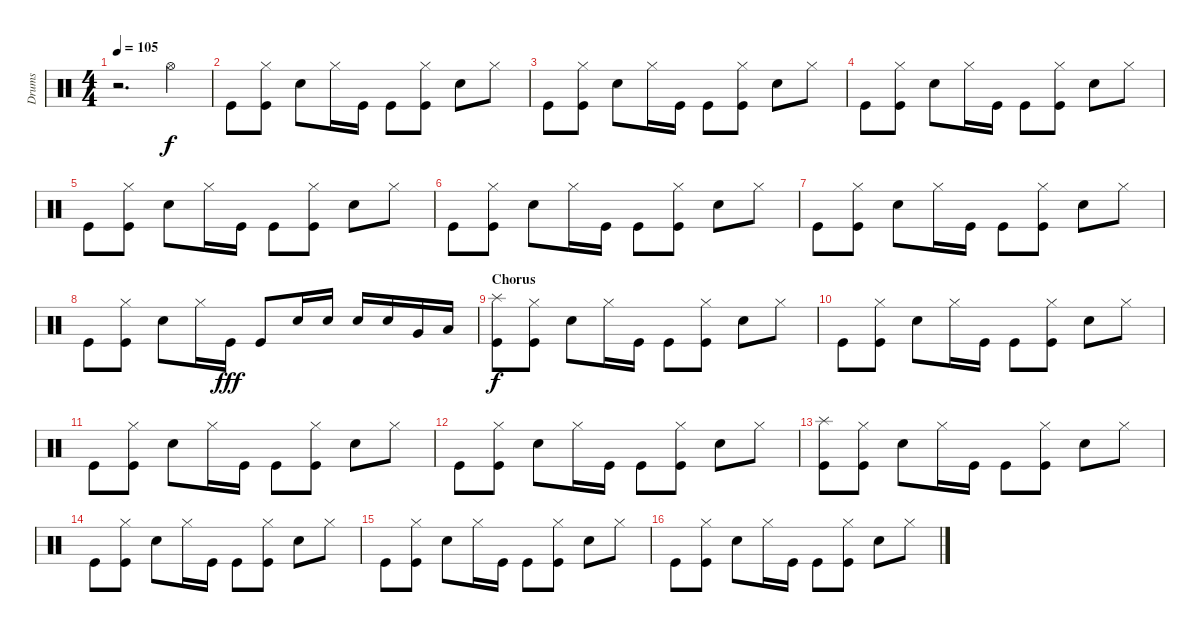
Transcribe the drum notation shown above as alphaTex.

\track ("Drums" "Drums") {instrument percussion}
\staff {score}
\articulation defaults
\ts (4 4)
\tempo 105
\clef neutral
\ks c
r.2{d dy mp} "Hi-Hat (open)".4{dy f} |
"Kick (hit)".8{volume 9} ("Kick (hit)" "Hi-Hat (closed)").8 "Electric Snare (hit)".8 "Hi-Hat (closed)".16 "Kick (hit)".16 "Kick (hit)".8 ("Kick (hit)" "Hi-Hat (closed)").8 "Electric Snare (hit)".8 "Hi-Hat (closed)".8 |
"Kick (hit)".8 ("Kick (hit)" "Hi-Hat (closed)").8 "Electric Snare (hit)".8 "Hi-Hat (closed)".16 "Kick (hit)".16 "Kick (hit)".8 ("Kick (hit)" "Hi-Hat (closed)").8 "Electric Snare (hit)".8 "Hi-Hat (closed)".8 |
"Kick (hit)".8 ("Kick (hit)" "Hi-Hat (closed)").8 "Electric Snare (hit)".8 "Hi-Hat (closed)".16 "Kick (hit)".16 "Kick (hit)".8 ("Kick (hit)" "Hi-Hat (closed)").8 "Electric Snare (hit)".8 "Hi-Hat (closed)".8 |
"Kick (hit)".8 ("Kick (hit)" "Hi-Hat (closed)").8 "Electric Snare (hit)".8 "Hi-Hat (closed)".16 "Kick (hit)".16 "Kick (hit)".8 ("Kick (hit)" "Hi-Hat (closed)").8 "Electric Snare (hit)".8 "Hi-Hat (closed)".8 |
"Kick (hit)".8 ("Kick (hit)" "Hi-Hat (closed)").8 "Electric Snare (hit)".8 "Hi-Hat (closed)".16 "Kick (hit)".16 "Kick (hit)".8 ("Kick (hit)" "Hi-Hat (closed)").8 "Electric Snare (hit)".8 "Hi-Hat (closed)".8 |
"Kick (hit)".8 ("Kick (hit)" "Hi-Hat (closed)").8 "Electric Snare (hit)".8 "Hi-Hat (closed)".16 "Kick (hit)".16 "Kick (hit)".8 ("Kick (hit)" "Hi-Hat (closed)").8 "Electric Snare (hit)".8{volume 9} "Hi-Hat (closed)".8{volume 10} |
"Kick (hit)".8{volume 11} ("Kick (hit)" "Hi-Hat (closed)").8{volume 12} "Electric Snare (hit)".8{volume 13} "Hi-Hat (closed)".16{volume 14} "Kick (hit)".16{dy fff volume 14} "Kick (hit)".8{volume 14} "Electric Snare (hit)".16{volume 15} "Electric Snare (hit)".16{volume 16} "Electric Snare (hit)".16{volume 16} "Electric Snare (hit)".16 "Very Low Tom (hit)".16 "Low Floor Tom (hit)".16 |
\section ("" "Chorus")
("Kick (hit)" "Splash (hit)").8{dy f} ("Kick (hit)" "Hi-Hat (closed)").8 "Electric Snare (hit)".8 "Hi-Hat (closed)".16 "Kick (hit)".16 "Kick (hit)".8 ("Kick (hit)" "Hi-Hat (closed)").8 "Electric Snare (hit)".8 "Hi-Hat (closed)".8 |
"Kick (hit)".8 ("Kick (hit)" "Hi-Hat (closed)").8 "Electric Snare (hit)".8 "Hi-Hat (closed)".16 "Kick (hit)".16 "Kick (hit)".8 ("Kick (hit)" "Hi-Hat (closed)").8 "Electric Snare (hit)".8 "Hi-Hat (closed)".8 |
"Kick (hit)".8 ("Kick (hit)" "Hi-Hat (closed)").8 "Electric Snare (hit)".8 "Hi-Hat (closed)".16 "Kick (hit)".16 "Kick (hit)".8 ("Kick (hit)" "Hi-Hat (closed)").8 "Electric Snare (hit)".8 "Hi-Hat (closed)".8 |
"Kick (hit)".8 ("Kick (hit)" "Hi-Hat (closed)").8 "Electric Snare (hit)".8 "Hi-Hat (closed)".16 "Kick (hit)".16 "Kick (hit)".8 ("Kick (hit)" "Hi-Hat (closed)").8 "Electric Snare (hit)".8 "Hi-Hat (closed)".8 |
("Kick (hit)" "Splash (hit)").8 ("Kick (hit)" "Hi-Hat (closed)").8 "Electric Snare (hit)".8 "Hi-Hat (closed)".16 "Kick (hit)".16 "Kick (hit)".8 ("Kick (hit)" "Hi-Hat (closed)").8 "Electric Snare (hit)".8 "Hi-Hat (closed)".8 |
"Kick (hit)".8 ("Kick (hit)" "Hi-Hat (closed)").8 "Electric Snare (hit)".8 "Hi-Hat (closed)".16 "Kick (hit)".16 "Kick (hit)".8 ("Kick (hit)" "Hi-Hat (closed)").8 "Electric Snare (hit)".8 "Hi-Hat (closed)".8 |
"Kick (hit)".8 ("Kick (hit)" "Hi-Hat (closed)").8 "Electric Snare (hit)".8 "Hi-Hat (closed)".16 "Kick (hit)".16 "Kick (hit)".8 ("Kick (hit)" "Hi-Hat (closed)").8 "Electric Snare (hit)".8 "Hi-Hat (closed)".8 |
"Kick (hit)".8 ("Kick (hit)" "Hi-Hat (closed)").8 "Electric Snare (hit)".8 "Hi-Hat (closed)".16 "Kick (hit)".16 "Kick (hit)".8 ("Kick (hit)" "Hi-Hat (closed)").8 "Electric Snare (hit)".8 "Hi-Hat (closed)".8
